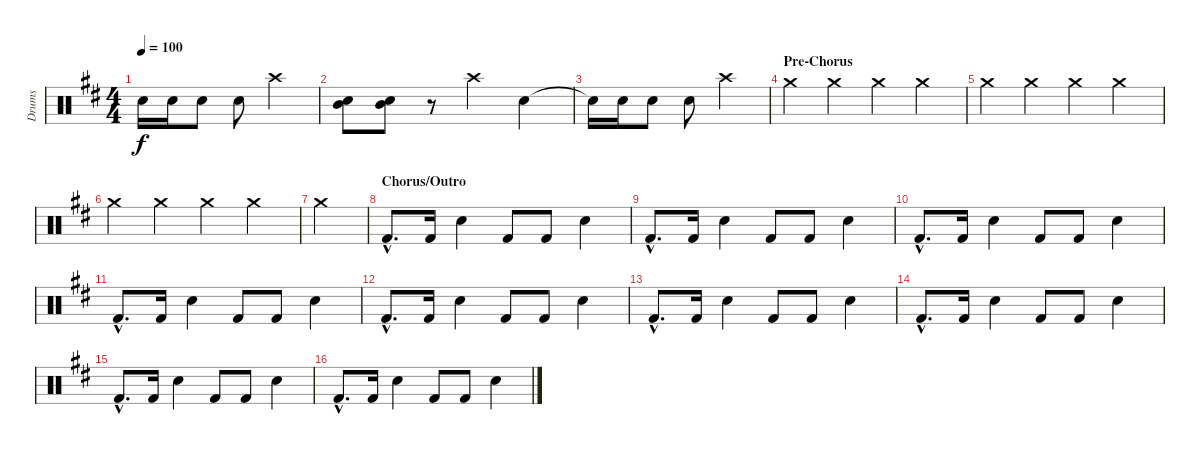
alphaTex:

\track ("Drums" "Drums") {instrument percussion}
\staff {score}
\articulation defaults
\ts (4 4)
\tempo 100
\clef neutral
\ks d "Electric Snare (hit)"{t}.16{dy f} "Electric Snare (hit)".16 "Electric Snare (hit)".8 "Electric Snare (hit)".8 "Crash high (hit)".4
|
("Mid Tom (hit)" "Electric Snare (hit)").8 ("Mid Tom (hit)" "Electric Snare (hit)").8 r.8 "Crash high (hit)".4 "Electric Snare (hit)".4 |
"Electric Snare (hit)"{t}.16 "Electric Snare (hit)".16 "Electric Snare (hit)".8 "Electric Snare (hit)".8 "Crash high (hit)".4 |
\section ("" "Pre-Chorus")
"Crash medium (hit)".4 "Crash medium (hit)".4 "Crash medium (hit)".4 "Crash medium (hit)".4 |
"Crash medium (hit)".4 "Crash medium (hit)".4 "Crash medium (hit)".4 "Crash medium (hit)".4 |
"Crash medium (hit)".4 "Crash medium (hit)".4 "Crash medium (hit)".4 "Crash medium (hit)".4 |
"Crash medium (hit)".4 |
\section ("" "Chorus/Outro")
"Kick (hit) 2"{hac}.8{d} "Kick (hit) 2".16 "Snare (hit) 2".4 "Kick (hit) 2".8 "Kick (hit) 2".8 "Snare (hit) 2".4 |
"Kick (hit) 2"{hac}.8{d} "Kick (hit) 2".16 "Snare (hit) 2".4 "Kick (hit) 2".8 "Kick (hit) 2".8 "Snare (hit) 2".4 |
"Kick (hit) 2"{hac}.8{d} "Kick (hit) 2".16 "Snare (hit) 2".4 "Kick (hit) 2".8 "Kick (hit) 2".8 "Snare (hit) 2".4 |
"Kick (hit) 2"{hac}.8{d} "Kick (hit) 2".16 "Snare (hit) 2".4 "Kick (hit) 2".8 "Kick (hit) 2".8 "Snare (hit) 2".4 |
"Kick (hit) 2"{hac}.8{d} "Kick (hit) 2".16 "Snare (hit) 2".4 "Kick (hit) 2".8 "Kick (hit) 2".8 "Snare (hit) 2".4 |
"Kick (hit) 2"{hac}.8{d} "Kick (hit) 2".16 "Snare (hit) 2".4 "Kick (hit) 2".8 "Kick (hit) 2".8 "Snare (hit) 2".4 |
"Kick (hit) 2"{hac}.8{d} "Kick (hit) 2".16 "Snare (hit) 2".4 "Kick (hit) 2".8 "Kick (hit) 2".8 "Snare (hit) 2".4 |
"Kick (hit) 2"{hac}.8{d} "Kick (hit) 2".16 "Snare (hit) 2".4 "Kick (hit) 2".8 "Kick (hit) 2".8 "Snare (hit) 2".4 |
"Kick (hit) 2"{hac}.8{d} "Kick (hit) 2".16 "Snare (hit) 2".4 "Kick (hit) 2".8 "Kick (hit) 2".8 "Snare (hit) 2".4
